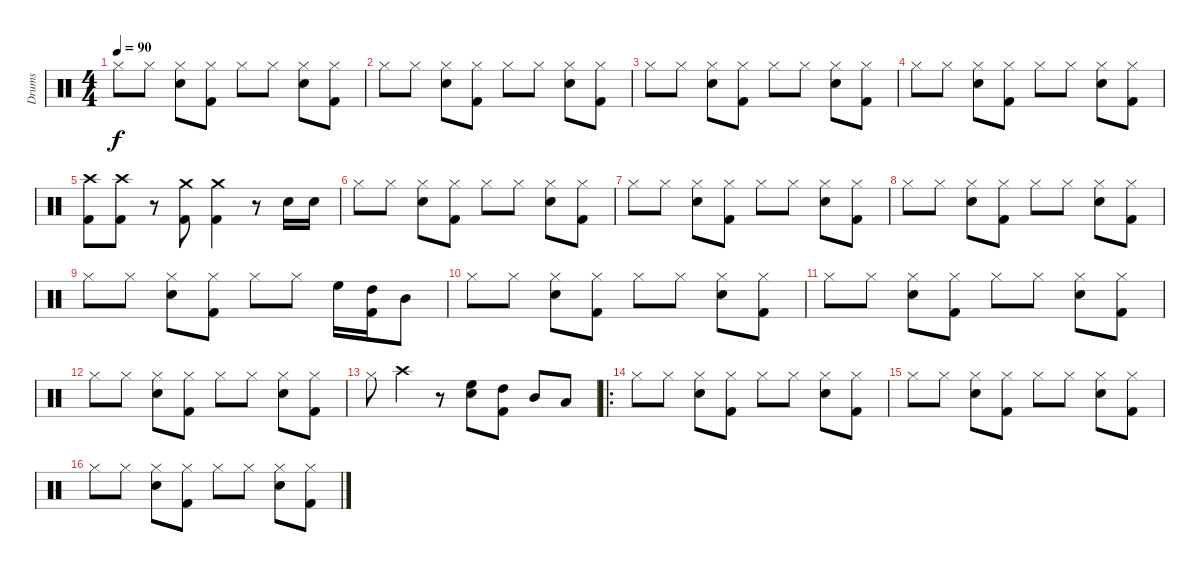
\track ("Drums" "Drums") {instrument percussion}
\staff {score}
\articulation defaults
\ts (4 4)
\tempo 90
\clef neutral
\ks c "Hi-Hat (closed)".8{dy f} "Hi-Hat (closed)".8
("Hi-Hat (closed)" "Snare (hit) 2").8 ("Hi-Hat (closed)" "Kick (hit) 2").8 "Hi-Hat (closed)".8 "Hi-Hat (closed)".8 ("Hi-Hat (closed)" "Snare (hit) 2").8 ("Hi-Hat (closed)" "Kick (hit) 2").8 |
"Hi-Hat (closed)".8 "Hi-Hat (closed)".8 ("Hi-Hat (closed)" "Snare (hit) 2").8 ("Hi-Hat (closed)" "Kick (hit) 2").8 "Hi-Hat (closed)".8 "Hi-Hat (closed)".8 ("Hi-Hat (closed)" "Snare (hit) 2").8 ("Hi-Hat (closed)" "Kick (hit) 2").8 |
"Hi-Hat (closed)".8 "Hi-Hat (closed)".8 ("Hi-Hat (closed)" "Snare (hit) 2").8 ("Hi-Hat (closed)" "Kick (hit) 2").8 "Hi-Hat (closed)".8 "Hi-Hat (closed)".8 ("Hi-Hat (closed)" "Snare (hit) 2").8 ("Hi-Hat (closed)" "Kick (hit) 2").8 |
"Hi-Hat (closed)".8 "Hi-Hat (closed)".8 ("Hi-Hat (closed)" "Snare (hit) 2").8 ("Hi-Hat (closed)" "Kick (hit) 2").8 "Hi-Hat (closed)".8 "Hi-Hat (closed)".8 ("Hi-Hat (closed)" "Snare (hit) 2").8 ("Hi-Hat (closed)" "Kick (hit) 2").8 |
("Crash high (hit)" "Kick (hit) 2").8 ("Crash high (hit)" "Kick (hit) 2").8 r.8 ("Crash medium (hit)" "Kick (hit) 2").8 ("Crash medium (hit)" "Kick (hit) 2").4 r.8 "Snare (hit) 2".16 "Snare (hit) 2".16 |
"Hi-Hat (closed)".8 "Hi-Hat (closed)".8 ("Hi-Hat (closed)" "Snare (hit) 2").8 ("Hi-Hat (closed)" "Kick (hit) 2").8 "Hi-Hat (closed)".8 "Hi-Hat (closed)".8 ("Hi-Hat (closed)" "Snare (hit) 2").8 ("Hi-Hat (closed)" "Kick (hit) 2").8 |
"Hi-Hat (closed)".8 "Hi-Hat (closed)".8 ("Hi-Hat (closed)" "Snare (hit) 2").8 ("Hi-Hat (closed)" "Kick (hit) 2").8 "Hi-Hat (closed)".8 "Hi-Hat (closed)".8 ("Hi-Hat (closed)" "Snare (hit) 2").8 ("Hi-Hat (closed)" "Kick (hit) 2").8 |
"Hi-Hat (closed)".8 "Hi-Hat (closed)".8 ("Hi-Hat (closed)" "Snare (hit) 2").8 ("Hi-Hat (closed)" "Kick (hit) 2").8 "Hi-Hat (closed)".8 "Hi-Hat (closed)".8 ("Hi-Hat (closed)" "Snare (hit) 2").8 ("Hi-Hat (closed)" "Kick (hit) 2").8 |
"Hi-Hat (closed)".8 "Hi-Hat (closed)".8 ("Hi-Hat (closed)" "Snare (hit) 2").8 ("Hi-Hat (closed)" "Kick (hit) 2").8 "Hi-Hat (closed)".8 "Hi-Hat (closed)".8 "High Floor Tom (hit)".16 ("High Tom (hit)" "Kick (hit) 2").16 "Mid Tom (hit)".8 |
"Hi-Hat (closed)".8 "Hi-Hat (closed)".8 ("Hi-Hat (closed)" "Snare (hit) 2").8 ("Hi-Hat (closed)" "Kick (hit) 2").8 "Hi-Hat (closed)".8 "Hi-Hat (closed)".8 ("Hi-Hat (closed)" "Snare (hit) 2").8 ("Hi-Hat (closed)" "Kick (hit) 2").8 |
"Hi-Hat (closed)".8 "Hi-Hat (closed)".8 ("Hi-Hat (closed)" "Snare (hit) 2").8 ("Hi-Hat (closed)" "Kick (hit) 2").8 "Hi-Hat (closed)".8 "Hi-Hat (closed)".8 ("Hi-Hat (closed)" "Snare (hit) 2").8 ("Hi-Hat (closed)" "Kick (hit) 2").8 |
"Hi-Hat (closed)".8 "Hi-Hat (closed)".8 ("Hi-Hat (closed)" "Snare (hit) 2").8 ("Hi-Hat (closed)" "Kick (hit) 2").8 "Hi-Hat (closed)".8 "Hi-Hat (closed)".8 ("Hi-Hat (closed)" "Snare (hit) 2").8 ("Hi-Hat (closed)" "Kick (hit) 2").8 |
"Hi-Hat (closed)".8 "Crash high (hit)".4 r.8 ("High Floor Tom (hit)" "Snare (hit) 2").8 ("High Tom (hit)" "Kick (hit) 2").8 "Mid Tom (hit)".8 "Low Tom (hit)".8 |
\ro "Hi-Hat (closed)".8 "Hi-Hat (closed)".8
("Hi-Hat (closed)" "Snare (hit) 2").8 ("Hi-Hat (closed)" "Kick (hit) 2").8 "Hi-Hat (closed)".8 "Hi-Hat (closed)".8 ("Hi-Hat (closed)" "Snare (hit) 2").8 ("Hi-Hat (closed)" "Kick (hit) 2").8 |
"Hi-Hat (closed)".8 "Hi-Hat (closed)".8 ("Hi-Hat (closed)" "Snare (hit) 2").8 ("Hi-Hat (closed)" "Kick (hit) 2").8 "Hi-Hat (closed)".8 "Hi-Hat (closed)".8 ("Hi-Hat (closed)" "Snare (hit) 2").8 ("Hi-Hat (closed)" "Kick (hit) 2").8 |
"Hi-Hat (closed)".8 "Hi-Hat (closed)".8 ("Hi-Hat (closed)" "Snare (hit) 2").8 ("Hi-Hat (closed)" "Kick (hit) 2").8 "Hi-Hat (closed)".8 "Hi-Hat (closed)".8 ("Hi-Hat (closed)" "Snare (hit) 2").8 ("Hi-Hat (closed)" "Kick (hit) 2").8
